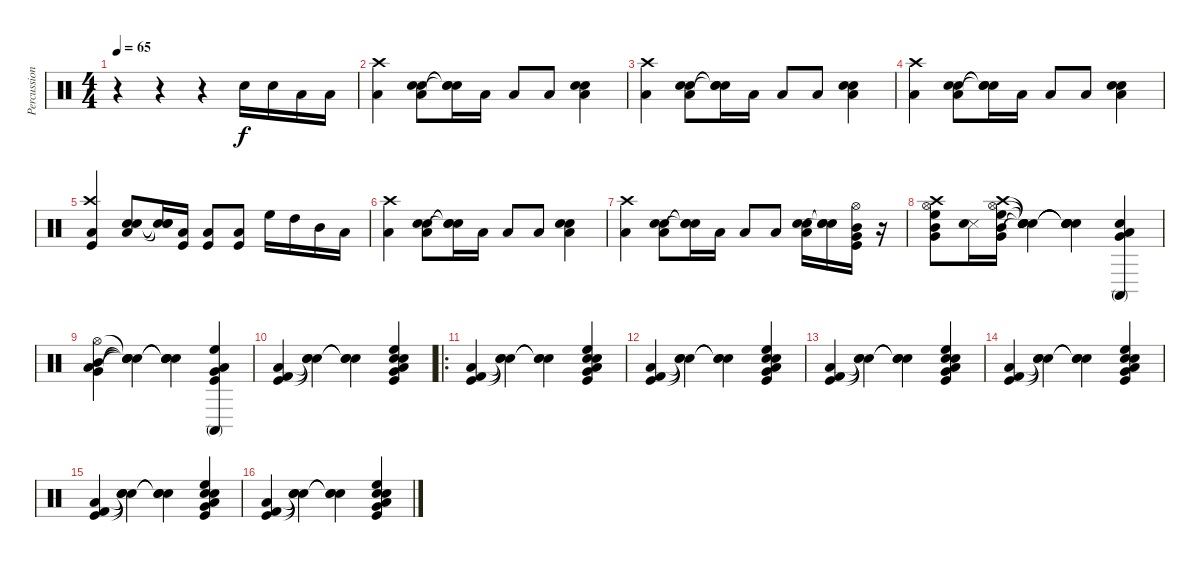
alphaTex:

\track ("Percussion" "Percussion") {instrument percussion}
\staff {score}
\articulation defaults
\ts (4 4)
\tempo 65
\clef neutral
\ks c
r.4{dy f} r.4 r.4 "Electric Snare (hit)".16 "Snare (hit) 2".16 "Low Tom (hit)".16 "Low Floor Tom (hit)".16 |
("Crash high (hit)" "Low Tom (hit)").4 ("Snare (hit) 2" "Electric Snare (hit)" "Low Tom (hit)").8 ("Snare (hit)"{t} "Snare (hit)"{t} "Snare (hit)"{t}).16 "Low Tom (hit)".16 "Low Tom (hit)".8 "Low Tom (hit)".8 ("Snare (hit) 2" "Electric Snare (hit)" "Low Tom (hit)").4 |
("Crash high (hit)" "Low Tom (hit)").4 ("Snare (hit) 2" "Electric Snare (hit)" "Low Tom (hit)").8 ("Snare (hit)"{t} "Snare (hit)"{t} "Snare (hit)"{t}).16 "Low Tom (hit)".16 "Low Tom (hit)".8 "Low Tom (hit)".8 ("Snare (hit) 2" "Electric Snare (hit)" "Low Tom (hit)").4 |
("Crash high (hit)" "Low Tom (hit)").4 ("Snare (hit) 2" "Electric Snare (hit)" "Low Tom (hit)").8 ("Snare (hit)"{t} "Snare (hit)"{t} "Snare (hit)"{t}).16 "Low Tom (hit)".16 "Low Tom (hit)".8 "Low Tom (hit)".8 ("Snare (hit) 2" "Electric Snare (hit)" "Low Tom (hit)").4 |
("Crash high (hit)" "Low Tom (hit)" "Kick (hit)").4 ("Hand Clap (hit)" "Low Tom (hit)" "Electric Snare (hit)").8 ("Snare (hit)"{t} "Snare (hit)"{t} "Snare (hit)"{t}).16 ("Low Tom (hit)" "Kick (hit)").16 ("Low Tom (hit)" "Kick (hit)").8 ("Low Tom (hit)" "Kick (hit)").8 "High Floor Tom (hit)".16 "High Tom (hit)".16 "Mid Tom (hit)".16 "Low Tom (hit)".16 |
("Crash high (hit)" "Low Tom (hit)").4 ("Snare (hit) 2" "Electric Snare (hit)" "Low Tom (hit)").8 ("Snare (hit)"{t} "Snare (hit)"{t} "Snare (hit)"{t}).16 "Low Tom (hit)".16 "Low Tom (hit)".8 "Low Tom (hit)".8 ("Snare (hit) 2" "Electric Snare (hit)" "Low Tom (hit)").4 |
("Crash high (hit)" "Low Tom (hit)").4 ("Hand Clap (hit)" "Electric Snare (hit)" "Low Tom (hit)").8 ("Snare (hit)"{t} "Snare (hit)"{t} "Snare (hit)"{t}).16 "Low Tom (hit)".16 "Low Tom (hit)".8 "Low Tom (hit)".8 ("Hand Clap (hit)" "Electric Snare (hit)" "Low Tom (hit)").16 ("Snare (hit)"{t} "Snare (hit)"{t} "Snare (hit)"{t}).16 ("Mid Tom (hit)" "Very Low Tom (hit)" "Kick (hit)" "Hi-Hat (open)").16 r.16 |
("Mid Tom (hit)" "Very Low Tom (hit)" "Hi-Hat (open)" "High Floor Tom (hit)" "Crash high (hit)").8 ("Snare (side stick) 3" "Hand Clap (hit)").16 ("Mid Tom (hit)" "Very Low Tom (hit)" "Hi-Hat (open)" "High Floor Tom (hit)" "Crash high (hit)").16 ("Snare (hit)"{t} "Snare (hit)"{t} "Snare (hit)"{t} "Snare (hit)"{t} "Snare (hit)"{t}).4 ("Snare (hit)"{t} "Snare (hit)"{t} "Snare (hit)"{t} "Snare (hit)"{t} "Snare (hit)"{t}).4 ("Hand Clap (hit)" "Low Tom (hit)" "Very Low Tom (hit)" "Conga high (mute)").4 |
("Mid Tom (hit)" "Hi-Hat (open)" "Low Tom (hit)" "Very Low Tom (hit)").4 ("Snare (hit)"{t} "Snare (hit)"{t} "Snare (hit)"{t} "Snare (hit)"{t}).4 ("Snare (hit)"{t} "Snare (hit)"{t} "Snare (hit)"{t} "Snare (hit)"{t}).4 ("Conga high (mute)" "Kick (hit)" "High Floor Tom (hit)" "Low Tom (hit)" "Very Low Tom (hit)").4 |
("Low Floor Tom (hit)" "Kick (hit)" "Kick (hit) 2").4 ("Snare (hit)"{t} "Snare (hit)"{t} "Snare (hit)"{t}).4 ("Snare (hit)"{t} "Snare (hit)"{t} "Snare (hit)"{t}).4 ("Hand Clap (hit)" "Kick (hit)" "High Floor Tom (hit)" "Electric Snare (hit)" "Low Tom (hit)" "Very Low Tom (hit)").4 |
\ro
("Low Floor Tom (hit)" "Kick (hit)" "Kick (hit) 2").4 ("Snare (hit)"{t} "Snare (hit)"{t} "Snare (hit)"{t}).4 ("Snare (hit)"{t} "Snare (hit)"{t} "Snare (hit)"{t}).4 ("Electric Snare (hit)" "Kick (hit)" "High Floor Tom (hit)" "Hand Clap (hit)" "Low Tom (hit)" "Very Low Tom (hit)").4 |
("Low Floor Tom (hit)" "Kick (hit)" "Kick (hit) 2").4 ("Snare (hit)"{t} "Snare (hit)"{t} "Snare (hit)"{t}).4 ("Snare (hit)"{t} "Snare (hit)"{t} "Snare (hit)"{t}).4 ("Electric Snare (hit)" "Kick (hit)" "High Floor Tom (hit)" "Hand Clap (hit)" "Low Tom (hit)" "Very Low Tom (hit)").4 |
("Low Floor Tom (hit)" "Kick (hit)" "Kick (hit) 2").4 ("Snare (hit)"{t} "Snare (hit)"{t} "Snare (hit)"{t}).4 ("Snare (hit)"{t} "Snare (hit)"{t} "Snare (hit)"{t}).4 ("Electric Snare (hit)" "Kick (hit)" "High Floor Tom (hit)" "Hand Clap (hit)" "Low Tom (hit)" "Very Low Tom (hit)").4 |
("Low Floor Tom (hit)" "Kick (hit)" "Kick (hit) 2").4 ("Snare (hit)"{t} "Snare (hit)"{t} "Snare (hit)"{t}).4 ("Snare (hit)"{t} "Snare (hit)"{t} "Snare (hit)"{t}).4 ("Electric Snare (hit)" "Kick (hit)" "High Floor Tom (hit)" "Hand Clap (hit)" "Low Tom (hit)" "Very Low Tom (hit)").4 |
("Low Floor Tom (hit)" "Kick (hit)" "Kick (hit) 2").4 ("Snare (hit)"{t} "Snare (hit)"{t} "Snare (hit)"{t}).4 ("Snare (hit)"{t} "Snare (hit)"{t} "Snare (hit)"{t}).4 ("Electric Snare (hit)" "Kick (hit)" "High Floor Tom (hit)" "Hand Clap (hit)" "Low Tom (hit)" "Very Low Tom (hit)").4 |
("Low Floor Tom (hit)" "Kick (hit)" "Kick (hit) 2").4 ("Snare (hit)"{t} "Snare (hit)"{t} "Snare (hit)"{t}).4 ("Snare (hit)"{t} "Snare (hit)"{t} "Snare (hit)"{t}).4 ("Electric Snare (hit)" "Kick (hit)" "High Floor Tom (hit)" "Hand Clap (hit)" "Low Tom (hit)" "Very Low Tom (hit)").4
